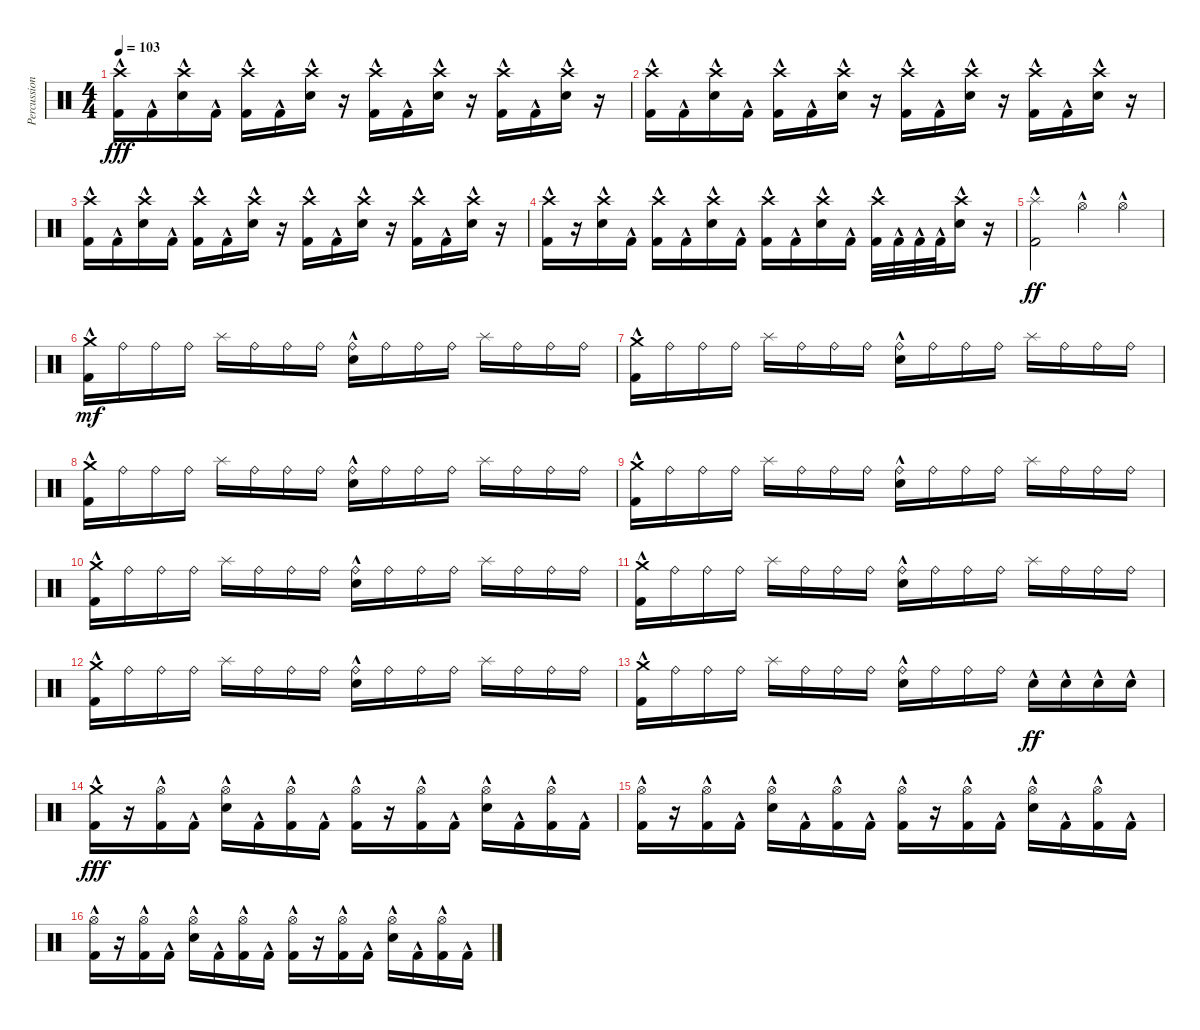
\track ("Percussion" "Percussion") {instrument percussion}
\staff {score}
\articulation defaults
\ts (4 4)
\tempo 103
\clef neutral
\ks c
("Kick (hit) 2"{hac} "Crash high (hit)").16{dy fff} "Kick (hit) 2"{hac}.16 ("Electric Snare (hit)"{hac} "Crash high (hit)").16 "Kick (hit) 2"{hac}.16 ("Kick (hit) 2"{hac} "Crash high (hit)").16 "Kick (hit) 2"{hac}.16 ("Electric Snare (hit)"{hac} "Crash high (hit)").16 r.16 ("Kick (hit) 2"{hac} "Crash high (hit)").16 "Kick (hit) 2"{hac}.16 ("Electric Snare (hit)"{hac} "Crash high (hit)").16 r.16 ("Kick (hit) 2"{hac} "Crash high (hit)").16 "Kick (hit) 2"{hac}.16 ("Electric Snare (hit)"{hac} "Crash high (hit)").16 r.16 |
("Kick (hit) 2"{hac} "Crash high (hit)").16 "Kick (hit) 2"{hac}.16 ("Electric Snare (hit)"{hac} "Crash high (hit)").16 "Kick (hit) 2"{hac}.16 ("Kick (hit) 2"{hac} "Crash high (hit)").16 "Kick (hit) 2"{hac}.16 ("Electric Snare (hit)"{hac} "Crash high (hit)").16 r.16 ("Kick (hit) 2"{hac} "Crash high (hit)").16 "Kick (hit) 2"{hac}.16 ("Electric Snare (hit)"{hac} "Crash high (hit)").16 r.16 ("Kick (hit) 2"{hac} "Crash high (hit)").16 "Kick (hit) 2"{hac}.16 ("Electric Snare (hit)"{hac} "Crash high (hit)").16 r.16 |
("Kick (hit) 2"{hac} "Crash high (hit)").16 "Kick (hit) 2"{hac}.16 ("Electric Snare (hit)"{hac} "Crash high (hit)").16 "Kick (hit) 2"{hac}.16 ("Kick (hit) 2"{hac} "Crash high (hit)").16 "Kick (hit) 2"{hac}.16 ("Electric Snare (hit)"{hac} "Crash high (hit)").16 r.16 ("Kick (hit) 2"{hac} "Crash high (hit)").16 "Kick (hit) 2"{hac}.16 ("Electric Snare (hit)"{hac} "Crash high (hit)").16 r.16 ("Kick (hit) 2"{hac} "Crash high (hit)").16 "Kick (hit) 2"{hac}.16 ("Electric Snare (hit)"{hac} "Crash high (hit)").16 r.16 |
("Kick (hit) 2"{hac} "Crash high (hit)").16 r.16 ("Electric Snare (hit)"{hac} "Crash high (hit)").16 "Kick (hit) 2"{hac}.16 ("Kick (hit) 2"{hac} "Crash high (hit)").16 "Kick (hit) 2"{hac}.16 ("Electric Snare (hit)"{hac} "Crash high (hit)").16 "Kick (hit) 2"{hac}.16 ("Kick (hit) 2"{hac} "Crash high (hit)").16 "Kick (hit) 2"{hac}.16 ("Electric Snare (hit)"{hac} "Crash high (hit)").16 "Kick (hit) 2"{hac}.16 ("Kick (hit) 2"{hac} "Crash high (hit)").32 "Kick (hit) 2"{hac}.32 "Kick (hit) 2"{hac}.32 "Kick (hit) 2"{hac}.32 ("Electric Snare (hit)"{hac} "Crash high (hit)").16 r.16 |
("Kick (hit) 2"{hac} "Splash (hit)"{hac}).2{dy ff} "Hi-Hat (open)"{hac}.4 "Hi-Hat (open)"{hac}.4 |
("Kick (hit) 2"{hac} "Crash medium (hit)").16{dy mf} "Ride (bell)".16 "Ride (bell)".16 "Ride (bell)".16 "Splash (hit)".16 "Ride (bell)".16 "Ride (bell)".16 "Ride (bell)".16 ("Electric Snare (hit)"{hac} "Ride (bell)").16 "Ride (bell)".16 "Ride (bell)".16 "Ride (bell)".16 "Splash (hit)".16 "Ride (bell)".16 "Ride (bell)".16 "Ride (bell)".16 |
("Kick (hit) 2"{hac} "Crash medium (hit)").16 "Ride (bell)".16 "Ride (bell)".16 "Ride (bell)".16 "Splash (hit)".16 "Ride (bell)".16 "Ride (bell)".16 "Ride (bell)".16 ("Electric Snare (hit)"{hac} "Ride (bell)").16 "Ride (bell)".16 "Ride (bell)".16 "Ride (bell)".16 "Splash (hit)".16 "Ride (bell)".16 "Ride (bell)".16 "Ride (bell)".16 |
("Kick (hit) 2"{hac} "Crash medium (hit)").16 "Ride (bell)".16 "Ride (bell)".16 "Ride (bell)".16 "Splash (hit)".16 "Ride (bell)".16 "Ride (bell)".16 "Ride (bell)".16 ("Electric Snare (hit)"{hac} "Ride (bell)").16 "Ride (bell)".16 "Ride (bell)".16 "Ride (bell)".16 "Splash (hit)".16 "Ride (bell)".16 "Ride (bell)".16 "Ride (bell)".16 |
("Kick (hit) 2"{hac} "Crash medium (hit)").16 "Ride (bell)".16 "Ride (bell)".16 "Ride (bell)".16 "Splash (hit)".16 "Ride (bell)".16 "Ride (bell)".16 "Ride (bell)".16 ("Electric Snare (hit)"{hac} "Ride (bell)").16 "Ride (bell)".16 "Ride (bell)".16 "Ride (bell)".16 "Splash (hit)".16 "Ride (bell)".16 "Ride (bell)".16 "Ride (bell)".16 |
("Kick (hit) 2"{hac} "Crash medium (hit)").16 "Ride (bell)".16 "Ride (bell)".16 "Ride (bell)".16 "Splash (hit)".16 "Ride (bell)".16 "Ride (bell)".16 "Ride (bell)".16 ("Electric Snare (hit)"{hac} "Ride (bell)").16 "Ride (bell)".16 "Ride (bell)".16 "Ride (bell)".16 "Splash (hit)".16 "Ride (bell)".16 "Ride (bell)".16 "Ride (bell)".16 |
("Kick (hit) 2"{hac} "Crash medium (hit)").16 "Ride (bell)".16 "Ride (bell)".16 "Ride (bell)".16 "Splash (hit)".16 "Ride (bell)".16 "Ride (bell)".16 "Ride (bell)".16 ("Electric Snare (hit)"{hac} "Ride (bell)").16 "Ride (bell)".16 "Ride (bell)".16 "Ride (bell)".16 "Splash (hit)".16 "Ride (bell)".16 "Ride (bell)".16 "Ride (bell)".16 |
("Kick (hit) 2"{hac} "Crash medium (hit)").16 "Ride (bell)".16 "Ride (bell)".16 "Ride (bell)".16 "Splash (hit)".16 "Ride (bell)".16 "Ride (bell)".16 "Ride (bell)".16 ("Electric Snare (hit)"{hac} "Ride (bell)").16 "Ride (bell)".16 "Ride (bell)".16 "Ride (bell)".16 "Splash (hit)".16 "Ride (bell)".16 "Ride (bell)".16 "Ride (bell)".16 |
("Kick (hit) 2"{hac} "Crash medium (hit)").16 "Ride (bell)".16 "Ride (bell)".16 "Ride (bell)".16 "Splash (hit)".16 "Ride (bell)".16 "Ride (bell)".16 "Ride (bell)".16 ("Electric Snare (hit)"{hac} "Ride (bell)").16 "Ride (bell)".16 "Ride (bell)".16 "Ride (bell)".16 "Electric Snare (hit)"{hac}.16{dy ff} "Electric Snare (hit)"{hac}.16 "Electric Snare (hit)"{hac}.16 "Electric Snare (hit)"{hac}.16 |
("Kick (hit) 2"{hac} "Crash medium (hit)").16{dy fff} r.16 ("Kick (hit) 2"{hac} "Hi-Hat (open)").16 "Kick (hit) 2"{hac}.16 ("Electric Snare (hit)"{hac} "Hi-Hat (open)").16 "Kick (hit) 2"{hac}.16 ("Kick (hit) 2"{hac} "Hi-Hat (open)").16 "Kick (hit) 2"{hac}.16 ("Kick (hit) 2"{hac} "Hi-Hat (open)").16 r.16 ("Kick (hit) 2"{hac} "Hi-Hat (open)").16 "Kick (hit) 2"{hac}.16 ("Electric Snare (hit)"{hac} "Hi-Hat (open)").16 "Kick (hit) 2"{hac}.16 ("Kick (hit) 2"{hac} "Hi-Hat (open)").16 "Kick (hit) 2"{hac}.16 |
("Kick (hit) 2"{hac} "Hi-Hat (open)").16 r.16 ("Kick (hit) 2"{hac} "Hi-Hat (open)").16 "Kick (hit) 2"{hac}.16 ("Electric Snare (hit)"{hac} "Hi-Hat (open)").16 "Kick (hit) 2"{hac}.16 ("Kick (hit) 2"{hac} "Hi-Hat (open)").16 "Kick (hit) 2"{hac}.16 ("Kick (hit) 2"{hac} "Hi-Hat (open)").16 r.16 ("Kick (hit) 2"{hac} "Hi-Hat (open)").16 "Kick (hit) 2"{hac}.16 ("Electric Snare (hit)"{hac} "Hi-Hat (open)").16 "Kick (hit) 2"{hac}.16 ("Kick (hit) 2"{hac} "Hi-Hat (open)").16 "Kick (hit) 2"{hac}.16 |
("Kick (hit) 2"{hac} "Hi-Hat (open)").16 r.16 ("Kick (hit) 2"{hac} "Hi-Hat (open)").16 "Kick (hit) 2"{hac}.16 ("Electric Snare (hit)"{hac} "Hi-Hat (open)").16 "Kick (hit) 2"{hac}.16 ("Kick (hit) 2"{hac} "Hi-Hat (open)").16 "Kick (hit) 2"{hac}.16 ("Kick (hit) 2"{hac} "Hi-Hat (open)").16 r.16 ("Kick (hit) 2"{hac} "Hi-Hat (open)").16 "Kick (hit) 2"{hac}.16 ("Electric Snare (hit)"{hac} "Hi-Hat (open)").16 "Kick (hit) 2"{hac}.16 ("Kick (hit) 2"{hac} "Hi-Hat (open)").16 "Kick (hit) 2"{hac}.16
